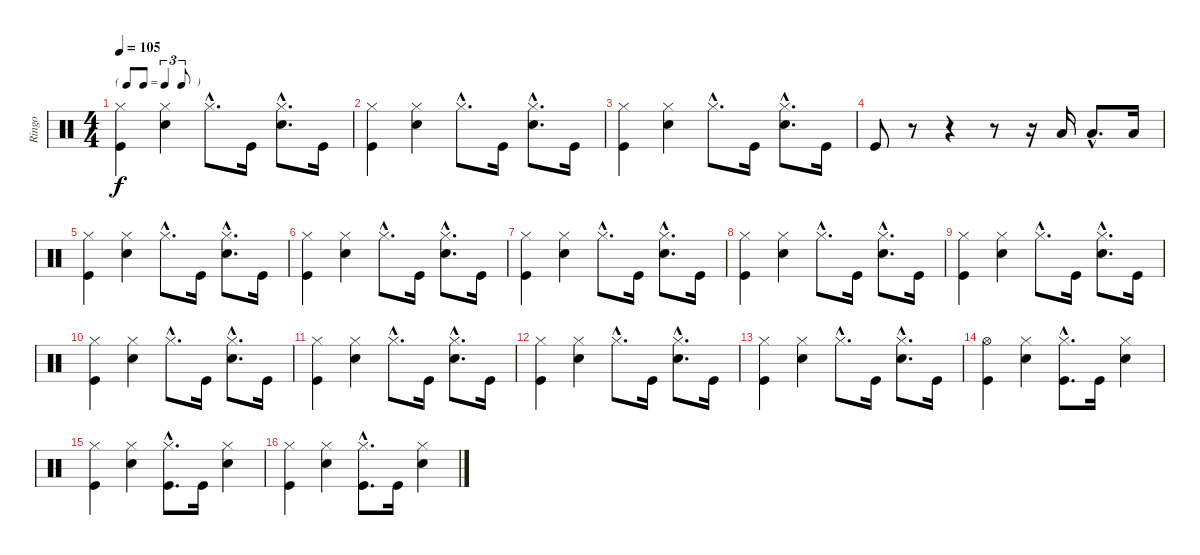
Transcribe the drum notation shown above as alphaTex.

\track ("Ringo" "Ringo") {instrument percussion}
\staff {score}
\articulation defaults
\ts (4 4)
\tf triplet8th
\tempo 105
\clef neutral
\ks c
("Hi-Hat (closed)" "Kick (hit)").4{dy f} ("Hi-Hat (closed)" "Snare (hit) 2").4 "Hi-Hat (closed)"{hac}.8{d} "Kick (hit)".16 ("Hi-Hat (closed)"{hac} "Snare (hit) 2"{hac}).8{d} "Kick (hit)".16 |
("Hi-Hat (closed)" "Kick (hit)").4 ("Hi-Hat (closed)" "Snare (hit) 2").4 "Hi-Hat (closed)"{hac}.8{d} "Kick (hit)".16 ("Hi-Hat (closed)"{hac} "Snare (hit) 2"{hac}).8{d} "Kick (hit)".16 |
("Hi-Hat (closed)" "Kick (hit)").4 ("Hi-Hat (closed)" "Snare (hit) 2").4 "Hi-Hat (closed)"{hac}.8{d} "Kick (hit)".16 ("Hi-Hat (closed)"{hac} "Snare (hit) 2"{hac}).8{d} "Kick (hit)".16 |
"Kick (hit)".8 r.8 r.4 r.8 r.16 "Low Floor Tom (hit)".16 "Low Floor Tom (hit)"{hac}.8{d} "Low Floor Tom (hit)".16 |
("Hi-Hat (closed)" "Kick (hit)").4 ("Hi-Hat (closed)" "Snare (hit) 2").4 "Hi-Hat (closed)"{hac}.8{d} "Kick (hit)".16 ("Hi-Hat (closed)"{hac} "Snare (hit) 2"{hac}).8{d} "Kick (hit)".16 |
("Hi-Hat (closed)" "Kick (hit)").4 ("Hi-Hat (closed)" "Snare (hit) 2").4 "Hi-Hat (closed)"{hac}.8{d} "Kick (hit)".16 ("Hi-Hat (closed)"{hac} "Snare (hit) 2"{hac}).8{d} "Kick (hit)".16 |
("Hi-Hat (closed)" "Kick (hit)").4 ("Hi-Hat (closed)" "Snare (hit) 2").4 "Hi-Hat (closed)"{hac}.8{d} "Kick (hit)".16 ("Hi-Hat (closed)"{hac} "Snare (hit) 2"{hac}).8{d} "Kick (hit)".16 |
("Hi-Hat (closed)" "Kick (hit)").4 ("Hi-Hat (closed)" "Snare (hit) 2").4 "Hi-Hat (closed)"{hac}.8{d} "Kick (hit)".16 ("Hi-Hat (closed)"{hac} "Snare (hit) 2"{hac}).8{d} "Kick (hit)".16 |
("Hi-Hat (closed)" "Kick (hit)").4 ("Hi-Hat (closed)" "Snare (hit) 2").4 "Hi-Hat (closed)"{hac}.8{d} "Kick (hit)".16 ("Hi-Hat (closed)"{hac} "Snare (hit) 2"{hac}).8{d} "Kick (hit)".16 |
("Hi-Hat (closed)" "Kick (hit)").4 ("Hi-Hat (closed)" "Snare (hit) 2").4 "Hi-Hat (closed)"{hac}.8{d} "Kick (hit)".16 ("Hi-Hat (closed)"{hac} "Snare (hit) 2"{hac}).8{d} "Kick (hit)".16 |
("Hi-Hat (closed)" "Kick (hit)").4 ("Hi-Hat (closed)" "Snare (hit) 2").4 "Hi-Hat (closed)"{hac}.8{d} "Kick (hit)".16 ("Hi-Hat (closed)"{hac} "Snare (hit) 2"{hac}).8{d} "Kick (hit)".16 |
("Hi-Hat (closed)" "Kick (hit)").4 ("Hi-Hat (closed)" "Snare (hit) 2").4 "Hi-Hat (closed)"{hac}.8{d} "Kick (hit)".16 ("Hi-Hat (closed)"{hac} "Snare (hit) 2"{hac}).8{d} "Kick (hit)".16 |
("Hi-Hat (closed)" "Kick (hit)").4 ("Hi-Hat (closed)" "Snare (hit) 2").4 "Hi-Hat (closed)"{hac}.8{d} "Kick (hit)".16 ("Hi-Hat (closed)"{hac} "Snare (hit) 2"{hac}).8{d} "Kick (hit)".16 |
("Hi-Hat (open)" "Kick (hit)").4 ("Hi-Hat (closed)" "Snare (hit) 2").4 ("Hi-Hat (closed)"{hac} "Kick (hit)"{hac}).8{d} "Kick (hit)".16 ("Hi-Hat (closed)" "Snare (hit) 2").4 |
("Hi-Hat (closed)" "Kick (hit)").4 ("Hi-Hat (closed)" "Snare (hit) 2").4 ("Hi-Hat (closed)"{hac} "Kick (hit)"{hac}).8{d} "Kick (hit)".16 ("Hi-Hat (closed)" "Snare (hit) 2").4 |
("Hi-Hat (closed)" "Kick (hit)").4 ("Hi-Hat (closed)" "Snare (hit) 2").4 ("Hi-Hat (closed)"{hac} "Kick (hit)"{hac}).8{d} "Kick (hit)".16 ("Hi-Hat (closed)" "Snare (hit) 2").4
